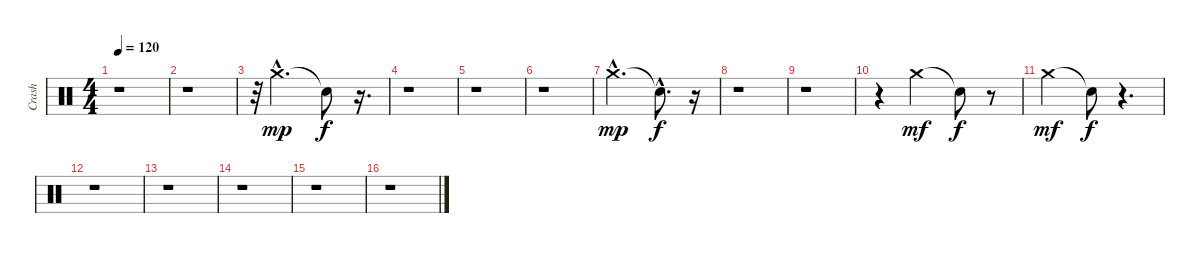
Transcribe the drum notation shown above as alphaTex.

\track ("Crash" "Crash") {instrument percussion}
\staff {score}
\articulation defaults
\ts (4 4)
\tempo 120
\clef neutral
\ks c
r.1{dy f} |
r.1 |
r.32 "Crash medium (hit)"{hac}.2{d dy mp} "Snare (hit)"{t}.8{dy f} r.16{d} |
r.1 |
r.1 |
r.1 |
"Crash medium (hit)"{hac}.2{d dy mp} "Snare (hit)"{hac t}.8{d dy f} r.16 |
r.1 |
r.1 |
r.4 "Crash medium (hit)".2{dy mf} "Snare (hit)"{t}.8{dy f} r.8 |
"Crash medium (hit)".2{dy mf} "Snare (hit)"{t}.8{dy f} r.4{d} |
r.1 |
r.1 |
r.1 |
r.1 |
r.1
